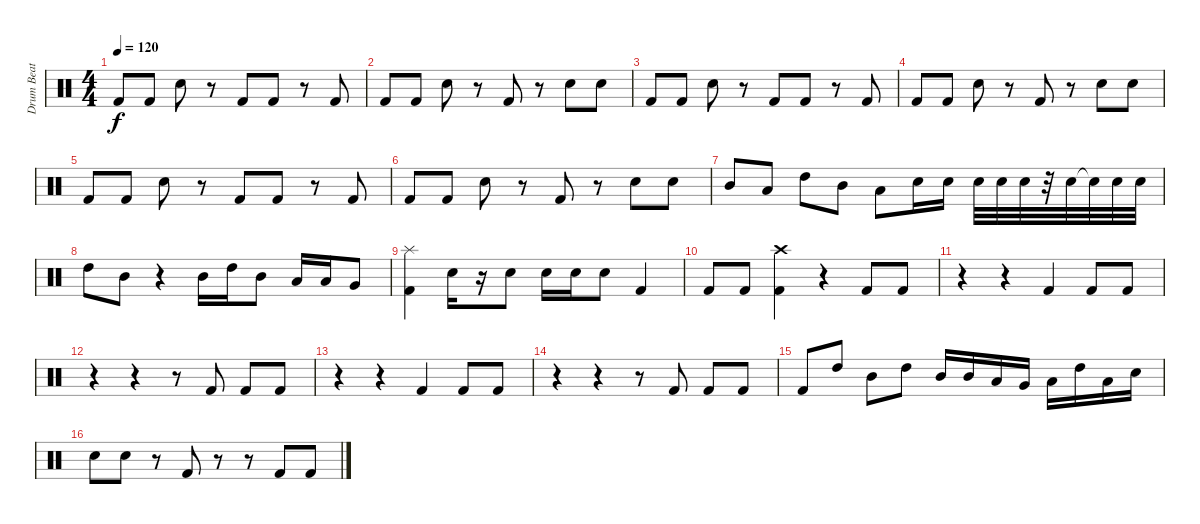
\track ("Drum Beat" "Drum Beat") {instrument percussion}
\staff {score}
\articulation defaults
\ts (4 4)
\tempo 120
\clef neutral
\ks c "Kick (hit) 2".8{dy f} "Kick (hit) 2".8 "Electric Snare (hit)".8
r.8 "Kick (hit) 2".8 "Kick (hit) 2".8 r.8 "Kick (hit) 2".8 |
"Kick (hit) 2".8 "Kick (hit) 2".8 "Electric Snare (hit)".8 r.8 "Kick (hit) 2".8 r.8 "Electric Snare (hit)".8 "Electric Snare (hit)".8 |
"Kick (hit) 2".8 "Kick (hit) 2".8 "Electric Snare (hit)".8 r.8 "Kick (hit) 2".8 "Kick (hit) 2".8 r.8 "Kick (hit) 2".8 |
"Kick (hit) 2".8 "Kick (hit) 2".8 "Electric Snare (hit)".8 r.8 "Kick (hit) 2".8 r.8 "Electric Snare (hit)".8 "Electric Snare (hit)".8 |
"Kick (hit) 2".8 "Kick (hit) 2".8 "Electric Snare (hit)".8 r.8 "Kick (hit) 2".8 "Kick (hit) 2".8 r.8 "Kick (hit) 2".8 |
"Kick (hit) 2".8 "Kick (hit) 2".8 "Electric Snare (hit)".8 r.8 "Kick (hit) 2".8 r.8 "Electric Snare (hit)".8 "Electric Snare (hit)".8 |
"Mid Tom (hit)".8 "Low Tom (hit)".8 "High Tom (hit)".8 "Mid Tom (hit)".8 "Low Tom (hit)".8 "Electric Snare (hit)".16 "Electric Snare (hit)".16 "Electric Snare (hit)".32 "Electric Snare (hit)".32 "Electric Snare (hit)".32 r.32 "Electric Snare (hit)".32 "Electric Snare (hit)"{t}.32 "Electric Snare (hit)".32 "Electric Snare (hit)".32 |
"High Tom (hit)".8 "Mid Tom (hit)".8 r.4 "Mid Tom (hit)".16 "High Tom (hit)".16 "Mid Tom (hit)".8 "Low Tom (hit)".16 "Low Tom (hit)".16 "Very Low Tom (hit)".8 |
("Kick (hit) 2" "Splash (hit)").4 "Electric Snare (hit)".16 r.16 "Electric Snare (hit)".8 "Electric Snare (hit)".16 "Electric Snare (hit)".16 "Electric Snare (hit)".8 "Kick (hit) 2".4 |
"Kick (hit) 2".8 "Kick (hit) 2".8 ("Kick (hit) 2" "Crash high (hit)").4 r.4 "Kick (hit) 2".8 "Kick (hit) 2".8 |
r.4 r.4 "Kick (hit) 2".4 "Kick (hit) 2".8 "Kick (hit) 2".8 |
r.4 r.4 r.8 "Kick (hit) 2".8 "Kick (hit) 2".8 "Kick (hit) 2".8 |
r.4 r.4 "Kick (hit) 2".4 "Kick (hit) 2".8 "Kick (hit) 2".8 |
r.4 r.4 r.8 "Kick (hit) 2".8 "Kick (hit) 2".8 "Kick (hit) 2".8 |
"Kick (hit) 2".8 "High Tom (hit)".8 "Mid Tom (hit)".8 "High Tom (hit)".8 "Mid Tom (hit)".16 "Mid Tom (hit)".16 "Low Tom (hit)".16 "Very Low Tom (hit)".16 "Low Floor Tom (hit)".16 "High Tom (hit)".16 "Low Tom (hit)".16 "Electric Snare (hit)".16 |
"Electric Snare (hit)".8 "Electric Snare (hit)".8 r.8 "Kick (hit) 2".8 r.8 r.8 "Kick (hit) 2".8 "Kick (hit) 2".8
